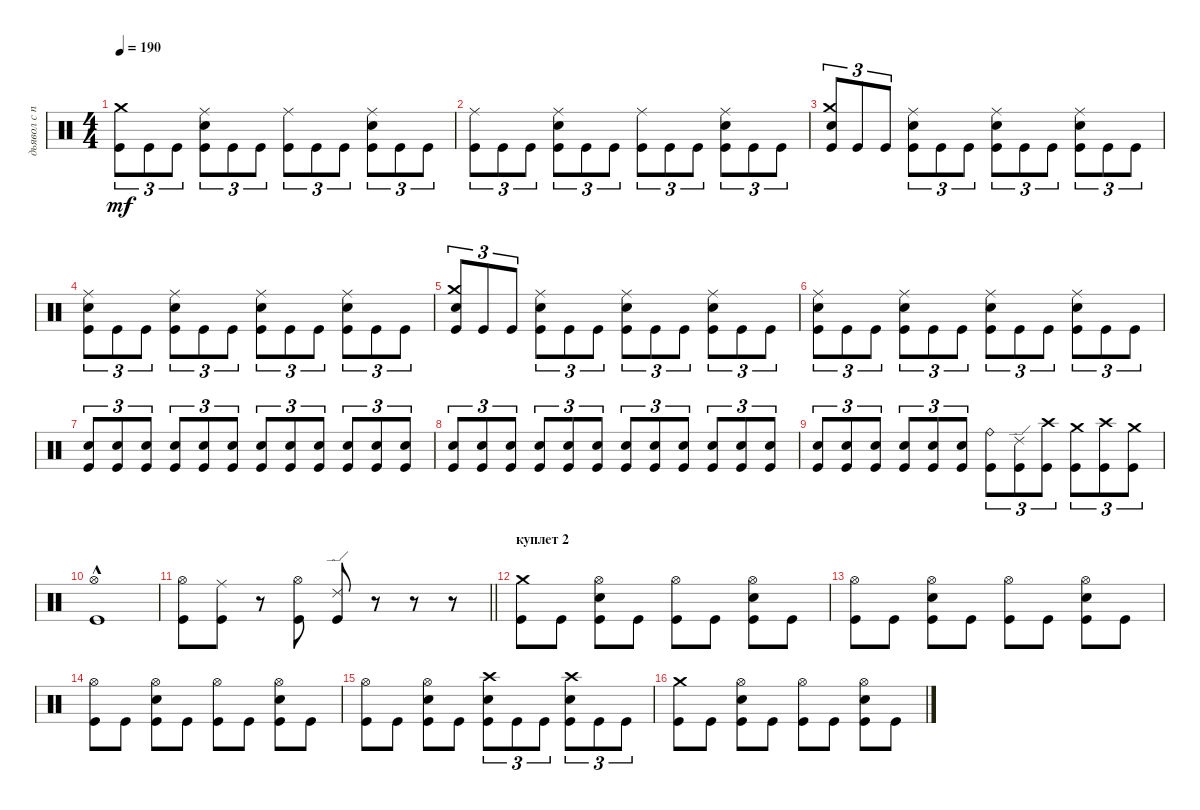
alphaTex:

\track ("дьявол с палками" "дьявол с п") {instrument percussion}
\staff {score}
\articulation defaults
\ts (4 4)
\tempo 190
\clef neutral
\ks c
("Kick (hit)" "Crash medium (hit)").8{tu (3 2) dy mf} "Kick (hit)".8{tu (3 2)} "Kick (hit)".8{tu (3 2)} ("Kick (hit)" "Snare (hit) 2" "Ride (middle)").8{tu (3 2)} "Kick (hit)".8{tu (3 2)} "Kick (hit)".8{tu (3 2)} ("Kick (hit)" "Ride (middle)").8{tu (3 2)} "Kick (hit)".8{tu (3 2)} "Kick (hit)".8{tu (3 2)} ("Kick (hit)" "Snare (hit) 2" "Ride (middle)").8{tu (3 2)} "Kick (hit)".8{tu (3 2)} "Kick (hit)".8{tu (3 2)} |
("Kick (hit)" "Ride (middle)").8{tu (3 2)} "Kick (hit)".8{tu (3 2)} "Kick (hit)".8{tu (3 2)} ("Kick (hit)" "Snare (hit) 2" "Ride (middle)").8{tu (3 2)} "Kick (hit)".8{tu (3 2)} "Kick (hit)".8{tu (3 2)} ("Kick (hit)" "Ride (middle)").8{tu (3 2)} "Kick (hit)".8{tu (3 2)} "Kick (hit)".8{tu (3 2)} ("Kick (hit)" "Snare (hit) 2" "Ride (middle)").8{tu (3 2)} "Kick (hit)".8{tu (3 2)} "Kick (hit)".8{tu (3 2)} |
("Kick (hit)" "Crash medium (hit)" "Snare (hit) 2").8{tu (3 2)} "Kick (hit)".8{tu (3 2)} "Kick (hit)".8{tu (3 2)} ("Kick (hit)" "Snare (hit) 2" "Ride (middle)").8{tu (3 2)} "Kick (hit)".8{tu (3 2)} "Kick (hit)".8{tu (3 2)} ("Kick (hit)" "Ride (middle)" "Snare (hit) 2").8{tu (3 2)} "Kick (hit)".8{tu (3 2)} "Kick (hit)".8{tu (3 2)} ("Kick (hit)" "Snare (hit) 2" "Ride (middle)").8{tu (3 2)} "Kick (hit)".8{tu (3 2)} "Kick (hit)".8{tu (3 2)} |
("Kick (hit)" "Ride (middle)" "Snare (hit) 2").8{tu (3 2)} "Kick (hit)".8{tu (3 2)} "Kick (hit)".8{tu (3 2)} ("Kick (hit)" "Snare (hit) 2" "Ride (middle)").8{tu (3 2)} "Kick (hit)".8{tu (3 2)} "Kick (hit)".8{tu (3 2)} ("Kick (hit)" "Ride (middle)" "Snare (hit) 2").8{tu (3 2)} "Kick (hit)".8{tu (3 2)} "Kick (hit)".8{tu (3 2)} ("Kick (hit)" "Snare (hit) 2" "Ride (middle)").8{tu (3 2)} "Kick (hit)".8{tu (3 2)} "Kick (hit)".8{tu (3 2)} |
("Kick (hit)" "Crash medium (hit)" "Snare (hit) 2").8{tu (3 2)} "Kick (hit)".8{tu (3 2)} "Kick (hit)".8{tu (3 2)} ("Kick (hit)" "Snare (hit) 2" "Ride (middle)").8{tu (3 2)} "Kick (hit)".8{tu (3 2)} "Kick (hit)".8{tu (3 2)} ("Kick (hit)" "Ride (middle)" "Snare (hit) 2").8{tu (3 2)} "Kick (hit)".8{tu (3 2)} "Kick (hit)".8{tu (3 2)} ("Kick (hit)" "Snare (hit) 2" "Ride (middle)").8{tu (3 2)} "Kick (hit)".8{tu (3 2)} "Kick (hit)".8{tu (3 2)} |
("Kick (hit)" "Ride (middle)" "Snare (hit) 2").8{tu (3 2)} "Kick (hit)".8{tu (3 2)} "Kick (hit)".8{tu (3 2)} ("Kick (hit)" "Snare (hit) 2" "Ride (middle)").8{tu (3 2)} "Kick (hit)".8{tu (3 2)} "Kick (hit)".8{tu (3 2)} ("Kick (hit)" "Ride (middle)" "Snare (hit) 2").8{tu (3 2)} "Kick (hit)".8{tu (3 2)} "Kick (hit)".8{tu (3 2)} ("Kick (hit)" "Snare (hit) 2" "Ride (middle)").8{tu (3 2)} "Kick (hit)".8{tu (3 2)} "Kick (hit)".8{tu (3 2)} |
("Kick (hit)" "Snare (hit) 2").8{tu (3 2)} ("Kick (hit)" "Snare (hit) 2").8{tu (3 2)} ("Kick (hit)" "Snare (hit) 2").8{tu (3 2)} ("Kick (hit)" "Snare (hit) 2").8{tu (3 2)} ("Kick (hit)" "Snare (hit) 2").8{tu (3 2)} ("Kick (hit)" "Snare (hit) 2").8{tu (3 2)} ("Kick (hit)" "Snare (hit) 2").8{tu (3 2)} ("Kick (hit)" "Snare (hit) 2").8{tu (3 2)} ("Kick (hit)" "Snare (hit) 2").8{tu (3 2)} ("Kick (hit)" "Snare (hit) 2").8{tu (3 2)} ("Kick (hit)" "Snare (hit) 2").8{tu (3 2)} ("Kick (hit)" "Snare (hit) 2").8{tu (3 2)} |
("Kick (hit)" "Snare (hit) 2").8{tu (3 2)} ("Kick (hit)" "Snare (hit) 2").8{tu (3 2)} ("Kick (hit)" "Snare (hit) 2").8{tu (3 2)} ("Kick (hit)" "Snare (hit) 2").8{tu (3 2)} ("Kick (hit)" "Snare (hit) 2").8{tu (3 2)} ("Kick (hit)" "Snare (hit) 2").8{tu (3 2)} ("Kick (hit)" "Snare (hit) 2").8{tu (3 2)} ("Kick (hit)" "Snare (hit) 2").8{tu (3 2)} ("Kick (hit)" "Snare (hit) 2").8{tu (3 2)} ("Kick (hit)" "Snare (hit) 2").8{tu (3 2)} ("Kick (hit)" "Snare (hit) 2").8{tu (3 2)} ("Kick (hit)" "Snare (hit) 2").8{tu (3 2)} |
("Kick (hit)" "Snare (hit) 2").8{tu (3 2)} ("Kick (hit)" "Snare (hit) 2").8{tu (3 2)} ("Kick (hit)" "Snare (hit) 2").8{tu (3 2)} ("Kick (hit)" "Snare (hit) 2").8{tu (3 2)} ("Kick (hit)" "Snare (hit) 2").8{tu (3 2)} ("Kick (hit)" "Snare (hit) 2").8{tu (3 2)} ("Kick (hit)" "Ride (bell)").8{tu (3 2)} ("Kick (hit)" "Ride (edge) 2").8{tu (3 2)} ("Kick (hit)" "Crash high (hit)").8{tu (3 2)} ("Kick (hit)" "Crash medium (hit)").8{tu (3 2)} ("Kick (hit)" "Crash high (hit)").8{tu (3 2)} ("Kick (hit)" "Crash medium (hit)").8{tu (3 2)} |
("Kick (hit)"{hac} "Hi-Hat (open)").1 |
\barLineRight lightlight
("Kick (hit)" "Hi-Hat (open)").8 ("Kick (hit)" "Ride (middle)").8 r.8 ("Kick (hit)" "Hi-Hat (open)").8 ("Kick (hit)" "Ride (edge) 2").8 r.8 r.8 r.8 |
\section ("" "куплет 2")
("Kick (hit)" "Crash medium (hit)").8 "Kick (hit)".8 ("Kick (hit)" "Snare (hit) 2" "Hi-Hat (open)").8 "Kick (hit)".8 ("Kick (hit)" "Hi-Hat (open)").8 "Kick (hit)".8 ("Kick (hit)" "Snare (hit) 2" "Hi-Hat (open)").8 "Kick (hit)".8 |
("Kick (hit)" "Hi-Hat (open)").8 "Kick (hit)".8 ("Kick (hit)" "Snare (hit) 2" "Hi-Hat (open)").8 "Kick (hit)".8 ("Kick (hit)" "Hi-Hat (open)").8 "Kick (hit)".8 ("Kick (hit)" "Snare (hit) 2" "Hi-Hat (open)").8 "Kick (hit)".8 |
("Kick (hit)" "Hi-Hat (open)").8 "Kick (hit)".8 ("Kick (hit)" "Snare (hit) 2" "Hi-Hat (open)").8 "Kick (hit)".8 ("Kick (hit)" "Hi-Hat (open)").8 "Kick (hit)".8 ("Kick (hit)" "Snare (hit) 2" "Hi-Hat (open)").8 "Kick (hit)".8 |
("Kick (hit)" "Hi-Hat (open)").8 "Kick (hit)".8 ("Kick (hit)" "Snare (hit) 2" "Hi-Hat (open)").8 "Kick (hit)".8 ("Kick (hit)" "Snare (hit) 2" "Crash high (hit)").8{tu (3 2)} "Kick (hit)".8{tu (3 2)} "Kick (hit)".8{tu (3 2)} ("Kick (hit)" "Snare (hit) 2" "Crash high (hit)").8{tu (3 2)} "Kick (hit)".8{tu (3 2)} "Kick (hit)".8{tu (3 2)} |
("Kick (hit)" "Crash medium (hit)").8 "Kick (hit)".8 ("Kick (hit)" "Snare (hit) 2" "Hi-Hat (open)").8 "Kick (hit)".8 ("Kick (hit)" "Hi-Hat (open)").8 "Kick (hit)".8 ("Kick (hit)" "Snare (hit) 2" "Hi-Hat (open)").8 "Kick (hit)".8
